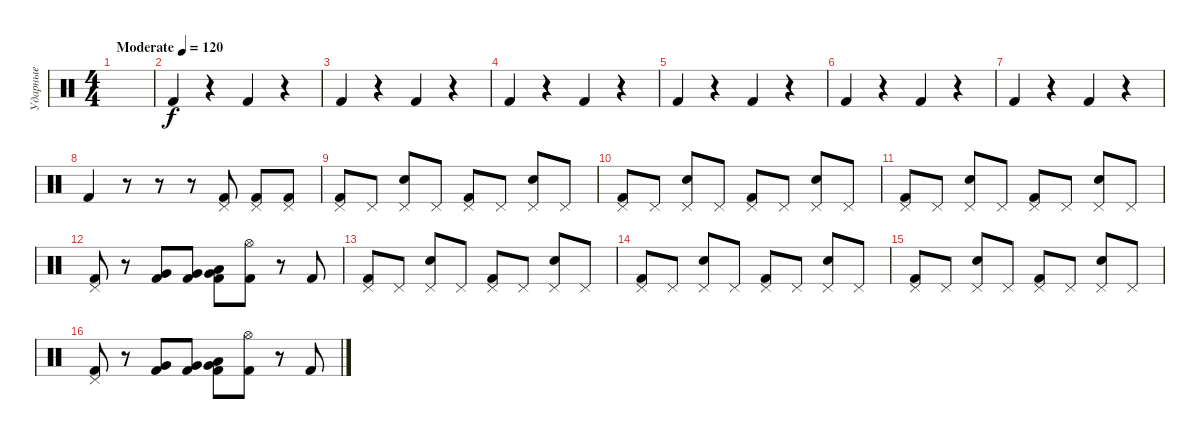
\track ("Ударные" "Ударные") {instrument percussion}
\staff {score}
\articulation defaults
\ts (4 4)
\tempo (120 "Moderate")
\clef neutral
\ks c
|
"Kick (hit) 2".4 r.4 "Kick (hit) 2".4 r.4 |
"Kick (hit) 2".4 r.4 "Kick (hit) 2".4 r.4 |
"Kick (hit) 2".4 r.4 "Kick (hit) 2".4 r.4 |
"Kick (hit) 2".4 r.4 "Kick (hit) 2".4 r.4 |
"Kick (hit) 2".4 r.4 "Kick (hit) 2".4 r.4 |
"Kick (hit) 2".4 r.4 "Kick (hit) 2".4 r.4 |
"Kick (hit) 2".4 r.8 r.8 r.8 ("Pedal Hi-Hat (hit)" "Kick (hit) 2").8 ("Pedal Hi-Hat (hit)" "Kick (hit) 2").8 ("Pedal Hi-Hat (hit)" "Kick (hit) 2").8 |
("Pedal Hi-Hat (hit)" "Kick (hit) 2").8 "Pedal Hi-Hat (hit)".8 ("Pedal Hi-Hat (hit)" "Snare (hit) 2").8 "Pedal Hi-Hat (hit)".8 ("Pedal Hi-Hat (hit)" "Kick (hit) 2").8 "Pedal Hi-Hat (hit)".8 ("Pedal Hi-Hat (hit)" "Snare (hit) 2").8 "Pedal Hi-Hat (hit)".8 |
("Pedal Hi-Hat (hit)" "Kick (hit) 2").8 "Pedal Hi-Hat (hit)".8 ("Pedal Hi-Hat (hit)" "Snare (hit) 2").8 "Pedal Hi-Hat (hit)".8 ("Pedal Hi-Hat (hit)" "Kick (hit) 2").8 "Pedal Hi-Hat (hit)".8 ("Pedal Hi-Hat (hit)" "Snare (hit) 2").8 "Pedal Hi-Hat (hit)".8 |
("Pedal Hi-Hat (hit)" "Kick (hit) 2").8 "Pedal Hi-Hat (hit)".8 ("Pedal Hi-Hat (hit)" "Snare (hit) 2").8 "Pedal Hi-Hat (hit)".8 ("Pedal Hi-Hat (hit)" "Kick (hit) 2").8 "Pedal Hi-Hat (hit)".8 ("Pedal Hi-Hat (hit)" "Snare (hit) 2").8 "Pedal Hi-Hat (hit)".8 |
("Pedal Hi-Hat (hit)" "Kick (hit) 2").8 r.8 ("Very Low Tom (hit)" "Kick (hit) 2").8 ("Very Low Tom (hit)" "Kick (hit) 2").8 ("Very Low Tom (hit)" "Low Tom (hit)" "Kick (hit) 2").8 ("Hi-Hat (open)" "Kick (hit) 2").8 r.8 "Kick (hit) 2".8 |
("Pedal Hi-Hat (hit)" "Kick (hit) 2").8 "Pedal Hi-Hat (hit)".8 ("Pedal Hi-Hat (hit)" "Snare (hit) 2").8 "Pedal Hi-Hat (hit)".8 ("Pedal Hi-Hat (hit)" "Kick (hit) 2").8 "Pedal Hi-Hat (hit)".8 ("Pedal Hi-Hat (hit)" "Snare (hit) 2").8 "Pedal Hi-Hat (hit)".8 |
("Pedal Hi-Hat (hit)" "Kick (hit) 2").8 "Pedal Hi-Hat (hit)".8 ("Pedal Hi-Hat (hit)" "Snare (hit) 2").8 "Pedal Hi-Hat (hit)".8 ("Pedal Hi-Hat (hit)" "Kick (hit) 2").8 "Pedal Hi-Hat (hit)".8 ("Pedal Hi-Hat (hit)" "Snare (hit) 2").8 "Pedal Hi-Hat (hit)".8 |
("Pedal Hi-Hat (hit)" "Kick (hit) 2").8 "Pedal Hi-Hat (hit)".8 ("Pedal Hi-Hat (hit)" "Snare (hit) 2").8 "Pedal Hi-Hat (hit)".8 ("Pedal Hi-Hat (hit)" "Kick (hit) 2").8 "Pedal Hi-Hat (hit)".8 ("Pedal Hi-Hat (hit)" "Snare (hit) 2").8 "Pedal Hi-Hat (hit)".8 |
("Pedal Hi-Hat (hit)" "Kick (hit) 2").8 r.8 ("Very Low Tom (hit)" "Kick (hit) 2").8 ("Very Low Tom (hit)" "Kick (hit) 2").8 ("Very Low Tom (hit)" "Low Tom (hit)" "Kick (hit) 2").8 ("Hi-Hat (open)" "Kick (hit) 2").8 r.8 "Kick (hit) 2".8
